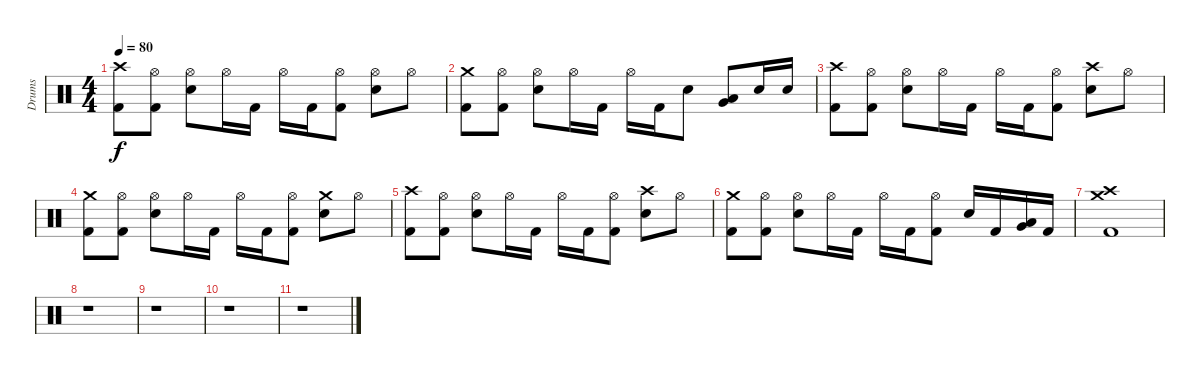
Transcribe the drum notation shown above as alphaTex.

\track ("Drums" "Drums") {instrument percussion}
\staff {score}
\articulation defaults
\ts (4 4)
\tempo 80
\clef neutral
\ks c
("Crash high (hit)" "Kick (hit) 2").8{dy f} ("Hi-Hat (open)" "Kick (hit) 2").8 ("Hi-Hat (open)" "Electric Snare (hit)").8 "Hi-Hat (open)".16 "Kick (hit) 2".16 "Hi-Hat (open)".16 "Kick (hit) 2".16 ("Hi-Hat (open)" "Kick (hit) 2").8 ("Hi-Hat (open)" "Electric Snare (hit)").8 "Hi-Hat (open)".8 |
("Crash medium (hit)" "Kick (hit) 2").8 ("Hi-Hat (open)" "Kick (hit) 2").8 ("Hi-Hat (open)" "Electric Snare (hit)").8 "Hi-Hat (open)".16 "Kick (hit) 2".16 "Hi-Hat (open)".16 "Kick (hit) 2".16 "Electric Snare (hit)".8 ("Very Low Tom (hit)" "Low Floor Tom (hit)").8 "Electric Snare (hit)".16 "Electric Snare (hit)".16 |
("Crash high (hit)" "Kick (hit) 2").8 ("Hi-Hat (open)" "Kick (hit) 2").8 ("Hi-Hat (open)" "Electric Snare (hit)").8 "Hi-Hat (open)".16 "Kick (hit) 2".16 "Hi-Hat (open)".16 "Kick (hit) 2".16 ("Hi-Hat (open)" "Kick (hit) 2").8 ("Crash high (hit)" "Electric Snare (hit)").8 "Hi-Hat (open)".8 |
("Crash medium (hit)" "Kick (hit) 2").8 ("Hi-Hat (open)" "Kick (hit) 2").8 ("Hi-Hat (open)" "Electric Snare (hit)").8 "Hi-Hat (open)".16 "Kick (hit) 2".16 "Hi-Hat (open)".16 "Kick (hit) 2".16 ("Hi-Hat (open)" "Kick (hit) 2").8 ("Crash medium (hit)" "Electric Snare (hit)").8 "Hi-Hat (open)".8 |
("Crash high (hit)" "Kick (hit) 2").8 ("Hi-Hat (open)" "Kick (hit) 2").8 ("Hi-Hat (open)" "Electric Snare (hit)").8 "Hi-Hat (open)".16 "Kick (hit) 2".16 "Hi-Hat (open)".16 "Kick (hit) 2".16 ("Hi-Hat (open)" "Kick (hit) 2").8 ("Crash high (hit)" "Electric Snare (hit)").8 "Hi-Hat (open)".8 |
("Crash medium (hit)" "Kick (hit) 2").8 ("Hi-Hat (open)" "Kick (hit) 2").8 ("Hi-Hat (open)" "Electric Snare (hit)").8 "Hi-Hat (open)".16 "Kick (hit) 2".16 "Hi-Hat (open)".16 "Kick (hit) 2".16 ("Hi-Hat (open)" "Kick (hit) 2").8 "Electric Snare (hit)".16 "Kick (hit) 2".16 ("Very Low Tom (hit)" "Low Floor Tom (hit)").16 "Kick (hit) 2".16 |
("Crash medium (hit)" "Crash high (hit)" "Kick (hit) 2").1 |
r.1 |
r.1 |
r.1 |
r.1
